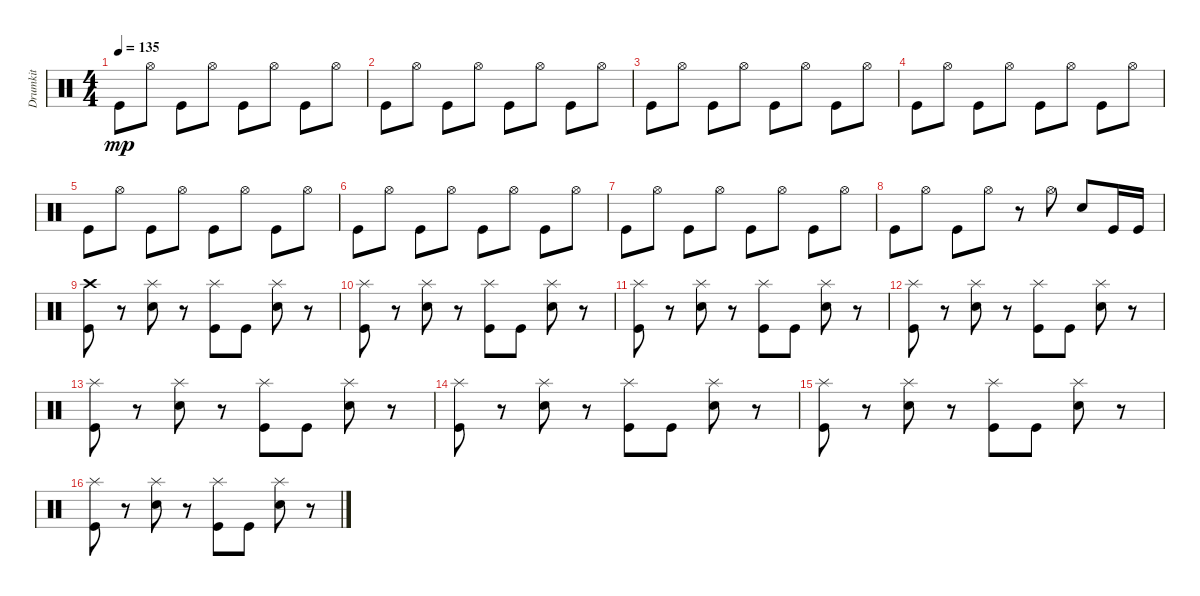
\track ("Drumkit" "Drumkit") {instrument percussion}
\staff {score}
\articulation defaults
\ts (4 4)
\tempo 135
\clef neutral
\ks c "Kick (hit)".8{dy mp} "Hi-Hat (open)".8 "Kick (hit)".8 "Hi-Hat (open)".8 "Kick (hit)".8 "Hi-Hat (open)".8 "Kick (hit)".8 "Hi-Hat (open)".8
|
"Kick (hit)".8 "Hi-Hat (open)".8 "Kick (hit)".8 "Hi-Hat (open)".8 "Kick (hit)".8 "Hi-Hat (open)".8 "Kick (hit)".8 "Hi-Hat (open)".8 |
"Kick (hit)".8 "Hi-Hat (open)".8 "Kick (hit)".8 "Hi-Hat (open)".8 "Kick (hit)".8 "Hi-Hat (open)".8 "Kick (hit)".8 "Hi-Hat (open)".8 |
"Kick (hit)".8 "Hi-Hat (open)".8 "Kick (hit)".8 "Hi-Hat (open)".8 "Kick (hit)".8 "Hi-Hat (open)".8 "Kick (hit)".8 "Hi-Hat (open)".8 |
"Kick (hit)".8 "Hi-Hat (open)".8 "Kick (hit)".8 "Hi-Hat (open)".8 "Kick (hit)".8 "Hi-Hat (open)".8 "Kick (hit)".8 "Hi-Hat (open)".8 |
"Kick (hit)".8 "Hi-Hat (open)".8 "Kick (hit)".8 "Hi-Hat (open)".8 "Kick (hit)".8 "Hi-Hat (open)".8 "Kick (hit)".8 "Hi-Hat (open)".8 |
"Kick (hit)".8 "Hi-Hat (open)".8 "Kick (hit)".8 "Hi-Hat (open)".8 "Kick (hit)".8 "Hi-Hat (open)".8 "Kick (hit)".8 "Hi-Hat (open)".8 |
"Kick (hit)".8 "Hi-Hat (open)".8 "Kick (hit)".8 "Hi-Hat (open)".8 r.8 "Hi-Hat (open)".8 "Snare (hit) 2".8 "Kick (hit)".16 "Kick (hit)".16 |
("Kick (hit)" "Crash high (hit)").8 r.8 ("Snare (hit) 2" "Splash (hit)").8 r.8 ("Kick (hit)" "Splash (hit)").8 "Kick (hit)".8 ("Snare (hit) 2" "Splash (hit)").8 r.8 |
("Kick (hit)" "Splash (hit)").8 r.8 ("Snare (hit) 2" "Splash (hit)").8 r.8 ("Kick (hit)" "Splash (hit)").8 "Kick (hit)".8 ("Snare (hit) 2" "Splash (hit)").8 r.8 |
("Kick (hit)" "Splash (hit)").8 r.8 ("Snare (hit) 2" "Splash (hit)").8 r.8 ("Kick (hit)" "Splash (hit)").8 "Kick (hit)".8 ("Snare (hit) 2" "Splash (hit)").8 r.8 |
("Kick (hit)" "Splash (hit)").8 r.8 ("Snare (hit) 2" "Splash (hit)").8 r.8 ("Kick (hit)" "Splash (hit)").8 "Kick (hit)".8 ("Snare (hit) 2" "Splash (hit)").8 r.8 |
("Kick (hit)" "Splash (hit)").8 r.8 ("Snare (hit) 2" "Splash (hit)").8 r.8 ("Kick (hit)" "Splash (hit)").8 "Kick (hit)".8 ("Snare (hit) 2" "Splash (hit)").8 r.8 |
("Kick (hit)" "Splash (hit)").8 r.8 ("Snare (hit) 2" "Splash (hit)").8 r.8 ("Kick (hit)" "Splash (hit)").8 "Kick (hit)".8 ("Snare (hit) 2" "Splash (hit)").8 r.8 |
("Kick (hit)" "Splash (hit)").8 r.8 ("Snare (hit) 2" "Splash (hit)").8 r.8 ("Kick (hit)" "Splash (hit)").8 "Kick (hit)".8 ("Snare (hit) 2" "Splash (hit)").8 r.8 |
("Kick (hit)" "Splash (hit)").8 r.8 ("Snare (hit) 2" "Splash (hit)").8 r.8 ("Kick (hit)" "Splash (hit)").8 "Kick (hit)".8 ("Snare (hit) 2" "Splash (hit)").8 r.8
